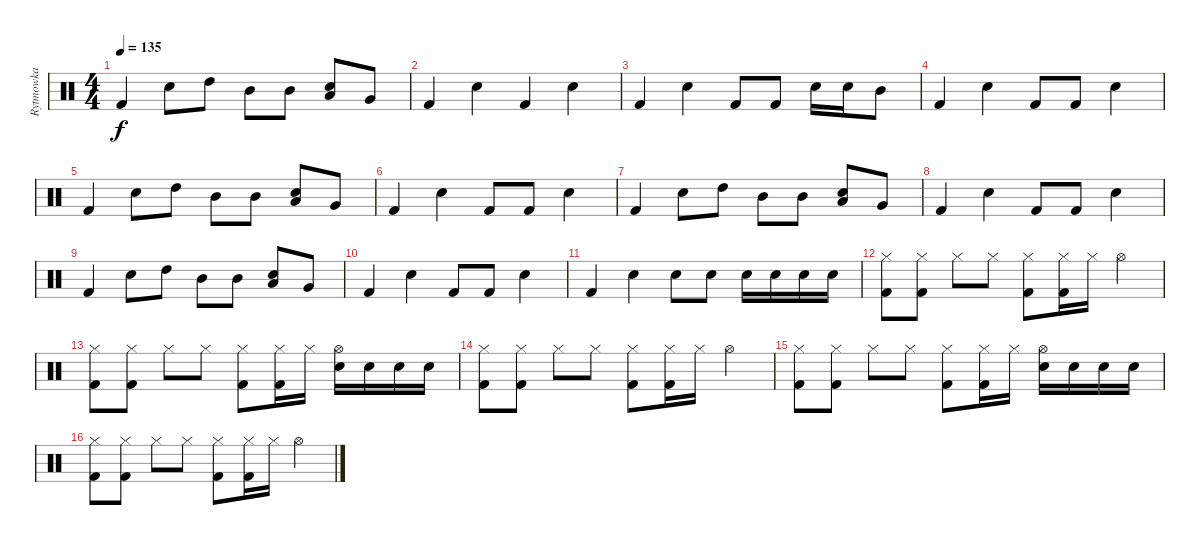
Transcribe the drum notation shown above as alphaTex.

\track ("Rytmowka" "Rytmowka") {instrument percussion}
\staff {score}
\articulation defaults
\ts (4 4)
\tempo 135
\clef neutral
\ks c "Kick (hit) 2".4{dy f} "Snare (hit) 2".8 "High Tom (hit)".8 "Mid Tom (hit)".8 "Mid Tom (hit)".8
("Snare (hit) 2" "Low Tom (hit)").8 "Very Low Tom (hit)".8 |
"Kick (hit) 2".4 "Snare (hit) 2".4 "Kick (hit) 2".4 "Snare (hit) 2".4 |
"Kick (hit) 2".4 "Snare (hit) 2".4 "Kick (hit) 2".8 "Kick (hit) 2".8 "Snare (hit) 2".16 "Snare (hit) 2".16 "Mid Tom (hit)".8 |
"Kick (hit) 2".4 "Snare (hit) 2".4 "Kick (hit) 2".8 "Kick (hit) 2".8 "Snare (hit) 2".4 |
"Kick (hit) 2".4 "Snare (hit) 2".8 "High Tom (hit)".8 "Mid Tom (hit)".8 "Mid Tom (hit)".8 ("Snare (hit) 2" "Low Tom (hit)").8 "Very Low Tom (hit)".8 |
"Kick (hit) 2".4 "Snare (hit) 2".4 "Kick (hit) 2".8 "Kick (hit) 2".8 "Snare (hit) 2".4 |
"Kick (hit) 2".4 "Snare (hit) 2".8 "High Tom (hit)".8 "Mid Tom (hit)".8 "Mid Tom (hit)".8 ("Snare (hit) 2" "Low Tom (hit)").8 "Very Low Tom (hit)".8 |
"Kick (hit) 2".4 "Snare (hit) 2".4 "Kick (hit) 2".8 "Kick (hit) 2".8 "Snare (hit) 2".4 |
"Kick (hit) 2".4 "Snare (hit) 2".8 "High Tom (hit)".8 "Mid Tom (hit)".8 "Mid Tom (hit)".8 ("Snare (hit) 2" "Low Tom (hit)").8 "Very Low Tom (hit)".8 |
"Kick (hit) 2".4 "Snare (hit) 2".4 "Kick (hit) 2".8 "Kick (hit) 2".8 "Snare (hit) 2".4 |
"Kick (hit) 2".4 "Snare (hit) 2".4 "Snare (hit) 2".8 "Snare (hit) 2".8 "Snare (hit) 2".16 "Snare (hit) 2".16 "Snare (hit) 2".16 "Snare (hit) 2".16 |
("Hi-Hat (closed)" "Kick (hit) 2").8 ("Hi-Hat (closed)" "Kick (hit) 2").8 "Hi-Hat (closed)".8 "Hi-Hat (closed)".8 ("Hi-Hat (closed)" "Kick (hit) 2").8 ("Hi-Hat (closed)" "Kick (hit) 2").16 "Hi-Hat (closed)".16 "Hi-Hat (open)".4 |
("Hi-Hat (closed)" "Kick (hit) 2").8 ("Hi-Hat (closed)" "Kick (hit) 2").8 "Hi-Hat (closed)".8 "Hi-Hat (closed)".8 ("Hi-Hat (closed)" "Kick (hit) 2").8 ("Hi-Hat (closed)" "Kick (hit) 2").16 "Hi-Hat (closed)".16 ("Hi-Hat (open)" "Snare (hit) 2").16 "Snare (hit) 2".16 "Snare (hit) 2".16 "Snare (hit) 2".16 |
("Hi-Hat (closed)" "Kick (hit) 2").8 ("Hi-Hat (closed)" "Kick (hit) 2").8 "Hi-Hat (closed)".8 "Hi-Hat (closed)".8 ("Hi-Hat (closed)" "Kick (hit) 2").8 ("Hi-Hat (closed)" "Kick (hit) 2").16 "Hi-Hat (closed)".16 "Hi-Hat (open)".4 |
("Hi-Hat (closed)" "Kick (hit) 2").8 ("Hi-Hat (closed)" "Kick (hit) 2").8 "Hi-Hat (closed)".8 "Hi-Hat (closed)".8 ("Hi-Hat (closed)" "Kick (hit) 2").8 ("Hi-Hat (closed)" "Kick (hit) 2").16 "Hi-Hat (closed)".16 ("Hi-Hat (open)" "Snare (hit) 2").16 "Snare (hit) 2".16 "Snare (hit) 2".16 "Snare (hit) 2".16 |
("Hi-Hat (closed)" "Kick (hit) 2").8 ("Hi-Hat (closed)" "Kick (hit) 2").8 "Hi-Hat (closed)".8 "Hi-Hat (closed)".8 ("Hi-Hat (closed)" "Kick (hit) 2").8 ("Hi-Hat (closed)" "Kick (hit) 2").16 "Hi-Hat (closed)".16 "Hi-Hat (open)".4
